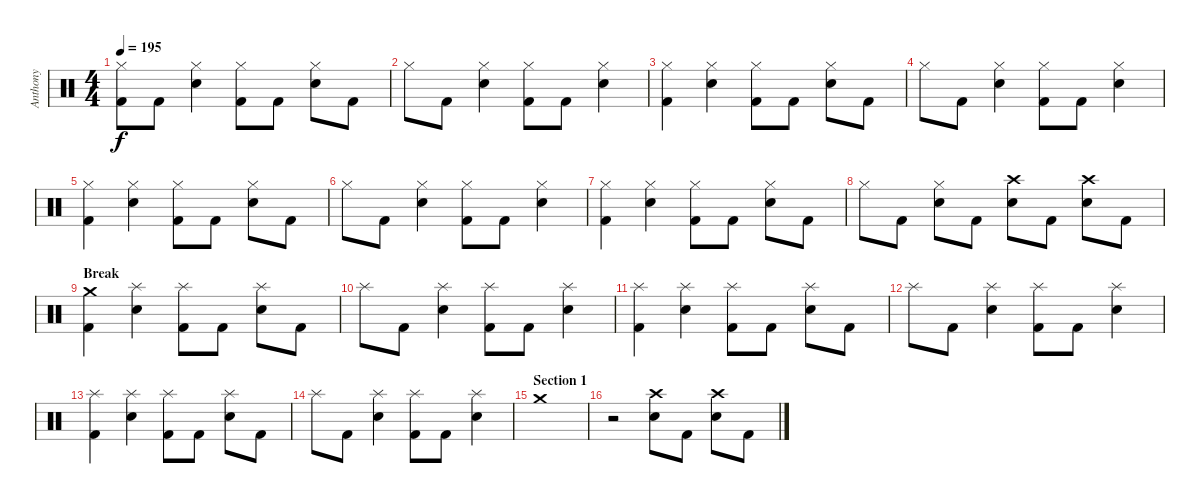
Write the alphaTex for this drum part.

\track ("Anthony" "Anthony") {instrument percussion}
\staff {score}
\articulation defaults
\ts (4 4)
\tempo 195
\clef neutral
\ks c
("Hi-Hat (closed)" "Kick (hit) 2").8{dy f} "Kick (hit) 2".8 ("Hi-Hat (closed)" "Electric Snare (hit)").4 ("Hi-Hat (closed)" "Kick (hit) 2").8 "Kick (hit) 2".8 ("Hi-Hat (closed)" "Electric Snare (hit)").8 "Kick (hit) 2".8 |
"Hi-Hat (closed)".8 "Kick (hit) 2".8 ("Hi-Hat (closed)" "Electric Snare (hit)").4 ("Hi-Hat (closed)" "Kick (hit) 2").8 "Kick (hit) 2".8 ("Hi-Hat (closed)" "Electric Snare (hit)").4 |
("Hi-Hat (closed)" "Kick (hit) 2").4 ("Hi-Hat (closed)" "Electric Snare (hit)").4 ("Hi-Hat (closed)" "Kick (hit) 2").8 "Kick (hit) 2".8 ("Hi-Hat (closed)" "Electric Snare (hit)").8 "Kick (hit) 2".8 |
"Hi-Hat (closed)".8 "Kick (hit) 2".8 ("Hi-Hat (closed)" "Electric Snare (hit)").4 ("Hi-Hat (closed)" "Kick (hit) 2").8 "Kick (hit) 2".8 ("Hi-Hat (closed)" "Electric Snare (hit)").4 |
("Hi-Hat (closed)" "Kick (hit) 2").4 ("Hi-Hat (closed)" "Electric Snare (hit)").4 ("Hi-Hat (closed)" "Kick (hit) 2").8 "Kick (hit) 2".8 ("Hi-Hat (closed)" "Electric Snare (hit)").8 "Kick (hit) 2".8 |
"Hi-Hat (closed)".8 "Kick (hit) 2".8 ("Hi-Hat (closed)" "Electric Snare (hit)").4 ("Hi-Hat (closed)" "Kick (hit) 2").8 "Kick (hit) 2".8 ("Hi-Hat (closed)" "Electric Snare (hit)").4 |
("Hi-Hat (closed)" "Kick (hit) 2").4 ("Hi-Hat (closed)" "Electric Snare (hit)").4 ("Hi-Hat (closed)" "Kick (hit) 2").8 "Kick (hit) 2".8 ("Hi-Hat (closed)" "Electric Snare (hit)").8 "Kick (hit) 2".8 |
"Hi-Hat (closed)".8 "Kick (hit) 2".8 ("Hi-Hat (closed)" "Electric Snare (hit)").8 "Kick (hit) 2".8 ("Crash high (hit)" "Electric Snare (hit)").8 "Kick (hit) 2".8 ("Crash high (hit)" "Electric Snare (hit)").8 "Kick (hit) 2".8 |
\section ("" "Break")
("Crash medium (hit)" "Kick (hit) 2").4 ("Splash (hit)" "Electric Snare (hit)").4 ("Splash (hit)" "Kick (hit) 2").8 "Kick (hit) 2".8 ("Splash (hit)" "Electric Snare (hit)").8 "Kick (hit) 2".8 |
"Splash (hit)".8 "Kick (hit) 2".8 ("Splash (hit)" "Electric Snare (hit)").4 ("Splash (hit)" "Kick (hit) 2").8 "Kick (hit) 2".8 ("Splash (hit)" "Electric Snare (hit)").4 |
("Splash (hit)" "Kick (hit) 2").4 ("Splash (hit)" "Electric Snare (hit)").4 ("Splash (hit)" "Kick (hit) 2").8 "Kick (hit) 2".8 ("Splash (hit)" "Electric Snare (hit)").8 "Kick (hit) 2".8 |
"Splash (hit)".8 "Kick (hit) 2".8 ("Splash (hit)" "Electric Snare (hit)").4 ("Splash (hit)" "Kick (hit) 2").8 "Kick (hit) 2".8 ("Splash (hit)" "Electric Snare (hit)").4 |
("Splash (hit)" "Kick (hit) 2").4 ("Splash (hit)" "Electric Snare (hit)").4 ("Splash (hit)" "Kick (hit) 2").8 "Kick (hit) 2".8 ("Splash (hit)" "Electric Snare (hit)").8 "Kick (hit) 2".8 |
"Splash (hit)".8 "Kick (hit) 2".8 ("Splash (hit)" "Electric Snare (hit)").4 ("Splash (hit)" "Kick (hit) 2").8 "Kick (hit) 2".8 ("Splash (hit)" "Electric Snare (hit)").4 |
\section ("" "Section 1")
"Crash medium (hit)".1 |
r.2 ("Crash high (hit)" "Electric Snare (hit)").8 "Kick (hit) 2".8 ("Crash high (hit)" "Electric Snare (hit)").8 "Kick (hit) 2".8
